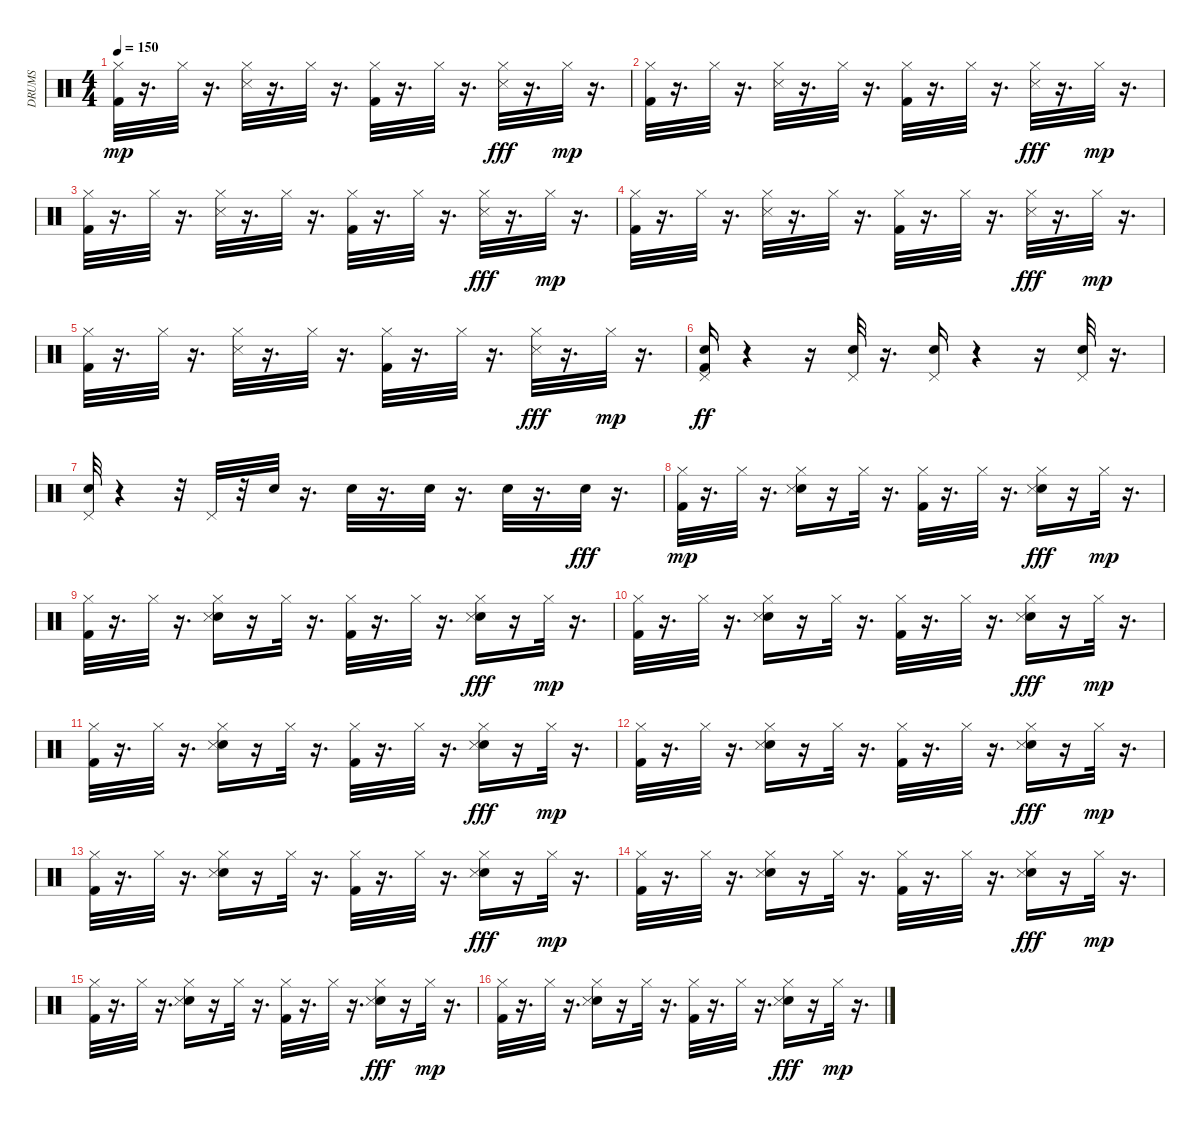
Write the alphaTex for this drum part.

\track ("DRUMS" "DRUMS") {instrument percussion}
\staff {score}
\articulation defaults
\ts (4 4)
\tempo 150
\clef neutral
\ks c
("Hi-Hat (closed)" "Kick (hit) 2").32{dy mp} r.16{d} "Hi-Hat (closed)".32 r.16{d} ("Snare (side stick) 3" "Hi-Hat (closed)").32 r.16{d} "Hi-Hat (closed)".32 r.16{d} ("Kick (hit) 2" "Hi-Hat (closed)").32 r.16{d} "Hi-Hat (closed)".32 r.16{d} ("Hi-Hat (closed)" "Snare (side stick) 3").32{dy fff} r.16{d} "Hi-Hat (closed)".32{dy mp} r.16{d} |
("Hi-Hat (closed)" "Kick (hit) 2").32 r.16{d} "Hi-Hat (closed)".32 r.16{d} ("Snare (side stick) 3" "Hi-Hat (closed)").32 r.16{d} "Hi-Hat (closed)".32 r.16{d} ("Kick (hit) 2" "Hi-Hat (closed)").32 r.16{d} "Hi-Hat (closed)".32 r.16{d} ("Hi-Hat (closed)" "Snare (side stick) 3").32{dy fff} r.16{d} "Hi-Hat (closed)".32{dy mp} r.16{d} |
("Hi-Hat (closed)" "Kick (hit) 2").32 r.16{d} "Hi-Hat (closed)".32 r.16{d} ("Snare (side stick) 3" "Hi-Hat (closed)").32 r.16{d} "Hi-Hat (closed)".32 r.16{d} ("Kick (hit) 2" "Hi-Hat (closed)").32 r.16{d} "Hi-Hat (closed)".32 r.16{d} ("Hi-Hat (closed)" "Snare (side stick) 3").32{dy fff} r.16{d} "Hi-Hat (closed)".32{dy mp} r.16{d} |
("Hi-Hat (closed)" "Kick (hit) 2").32 r.16{d} "Hi-Hat (closed)".32 r.16{d} ("Snare (side stick) 3" "Hi-Hat (closed)").32 r.16{d} "Hi-Hat (closed)".32 r.16{d} ("Kick (hit) 2" "Hi-Hat (closed)").32 r.16{d} "Hi-Hat (closed)".32 r.16{d} ("Hi-Hat (closed)" "Snare (side stick) 3").32{dy fff} r.16{d} "Hi-Hat (closed)".32{dy mp} r.16{d} |
("Hi-Hat (closed)" "Kick (hit) 2").32 r.16{d} "Hi-Hat (closed)".32 r.16{d} ("Snare (side stick) 3" "Hi-Hat (closed)").32 r.16{d} "Hi-Hat (closed)".32 r.16{d} ("Kick (hit) 2" "Hi-Hat (closed)").32 r.16{d} "Hi-Hat (closed)".32 r.16{d} ("Hi-Hat (closed)" "Snare (side stick) 3").32{dy fff} r.16{d} "Hi-Hat (closed)".32{dy mp} r.16{d} |
("Kick (hit) 2" "Electric Snare (hit)" "Pedal Hi-Hat (hit)").16{dy ff} r.4 r.16 ("Electric Snare (hit)" "Pedal Hi-Hat (hit)").32 r.16{d} ("Electric Snare (hit)" "Pedal Hi-Hat (hit)").16 r.4 r.16 ("Pedal Hi-Hat (hit)" "Electric Snare (hit)").32 r.16{d} |
("Electric Snare (hit)" "Pedal Hi-Hat (hit)").32 r.4 r.32 "Pedal Hi-Hat (hit)".32 r.32 "Electric Snare (hit)".32 r.16{d} "Electric Snare (hit)".32 r.16{d} "Electric Snare (hit)".32 r.16{d} "Electric Snare (hit)".32 r.16{d} "Electric Snare (hit)".32{dy fff} r.16{d} |
("Hi-Hat (closed)" "Kick (hit) 2").32{dy mp} r.16{d} "Hi-Hat (closed)".32 r.16{d} ("Snare (hit) 2" "Snare (side stick) 3" "Hi-Hat (closed)").16 r.16 "Hi-Hat (closed)".32 r.16{d} ("Kick (hit) 2" "Hi-Hat (closed)").32 r.16{d} "Hi-Hat (closed)".32 r.16{d} ("Snare (hit) 2" "Hi-Hat (closed)" "Snare (side stick) 3").16{dy fff} r.16 "Hi-Hat (closed)".32{dy mp} r.16{d} |
("Hi-Hat (closed)" "Kick (hit) 2").32 r.16{d} "Hi-Hat (closed)".32 r.16{d} ("Snare (hit) 2" "Snare (side stick) 3" "Hi-Hat (closed)").16 r.16 "Hi-Hat (closed)".32 r.16{d} ("Kick (hit) 2" "Hi-Hat (closed)").32 r.16{d} "Hi-Hat (closed)".32 r.16{d} ("Snare (hit) 2" "Hi-Hat (closed)" "Snare (side stick) 3").16{dy fff} r.16 "Hi-Hat (closed)".32{dy mp} r.16{d} |
("Hi-Hat (closed)" "Kick (hit) 2").32 r.16{d} "Hi-Hat (closed)".32 r.16{d} ("Snare (hit) 2" "Snare (side stick) 3" "Hi-Hat (closed)").16 r.16 "Hi-Hat (closed)".32 r.16{d} ("Kick (hit) 2" "Hi-Hat (closed)").32 r.16{d} "Hi-Hat (closed)".32 r.16{d} ("Snare (hit) 2" "Hi-Hat (closed)" "Snare (side stick) 3").16{dy fff} r.16 "Hi-Hat (closed)".32{dy mp} r.16{d} |
("Hi-Hat (closed)" "Kick (hit) 2").32 r.16{d} "Hi-Hat (closed)".32 r.16{d} ("Snare (hit) 2" "Snare (side stick) 3" "Hi-Hat (closed)").16 r.16 "Hi-Hat (closed)".32 r.16{d} ("Kick (hit) 2" "Hi-Hat (closed)").32 r.16{d} "Hi-Hat (closed)".32 r.16{d} ("Snare (hit) 2" "Hi-Hat (closed)" "Snare (side stick) 3").16{dy fff} r.16 "Hi-Hat (closed)".32{dy mp} r.16{d} |
("Hi-Hat (closed)" "Kick (hit) 2").32 r.16{d} "Hi-Hat (closed)".32 r.16{d} ("Snare (hit) 2" "Snare (side stick) 3" "Hi-Hat (closed)").16 r.16 "Hi-Hat (closed)".32 r.16{d} ("Kick (hit) 2" "Hi-Hat (closed)").32 r.16{d} "Hi-Hat (closed)".32 r.16{d} ("Snare (hit) 2" "Hi-Hat (closed)" "Snare (side stick) 3").16{dy fff} r.16 "Hi-Hat (closed)".32{dy mp} r.16{d} |
("Hi-Hat (closed)" "Kick (hit) 2").32 r.16{d} "Hi-Hat (closed)".32 r.16{d} ("Snare (hit) 2" "Snare (side stick) 3" "Hi-Hat (closed)").16 r.16 "Hi-Hat (closed)".32 r.16{d} ("Kick (hit) 2" "Hi-Hat (closed)").32 r.16{d} "Hi-Hat (closed)".32 r.16{d} ("Snare (hit) 2" "Hi-Hat (closed)" "Snare (side stick) 3").16{dy fff} r.16 "Hi-Hat (closed)".32{dy mp} r.16{d} |
("Hi-Hat (closed)" "Kick (hit) 2").32 r.16{d} "Hi-Hat (closed)".32 r.16{d} ("Snare (hit) 2" "Snare (side stick) 3" "Hi-Hat (closed)").16 r.16 "Hi-Hat (closed)".32 r.16{d} ("Kick (hit) 2" "Hi-Hat (closed)").32 r.16{d} "Hi-Hat (closed)".32 r.16{d} ("Snare (hit) 2" "Hi-Hat (closed)" "Snare (side stick) 3").16{dy fff} r.16 "Hi-Hat (closed)".32{dy mp} r.16{d} |
("Hi-Hat (closed)" "Kick (hit) 2").32 r.16{d} "Hi-Hat (closed)".32 r.16{d} ("Snare (hit) 2" "Snare (side stick) 3" "Hi-Hat (closed)").16 r.16 "Hi-Hat (closed)".32 r.16{d} ("Kick (hit) 2" "Hi-Hat (closed)").32 r.16{d} "Hi-Hat (closed)".32 r.16{d} ("Snare (hit) 2" "Hi-Hat (closed)" "Snare (side stick) 3").16{dy fff} r.16 "Hi-Hat (closed)".32{dy mp} r.16{d} |
("Hi-Hat (closed)" "Kick (hit) 2").32 r.16{d} "Hi-Hat (closed)".32 r.16{d} ("Snare (hit) 2" "Snare (side stick) 3" "Hi-Hat (closed)").16 r.16 "Hi-Hat (closed)".32 r.16{d} ("Kick (hit) 2" "Hi-Hat (closed)").32 r.16{d} "Hi-Hat (closed)".32 r.16{d} ("Snare (hit) 2" "Hi-Hat (closed)" "Snare (side stick) 3").16{dy fff} r.16 "Hi-Hat (closed)".32{dy mp} r.16{d}
